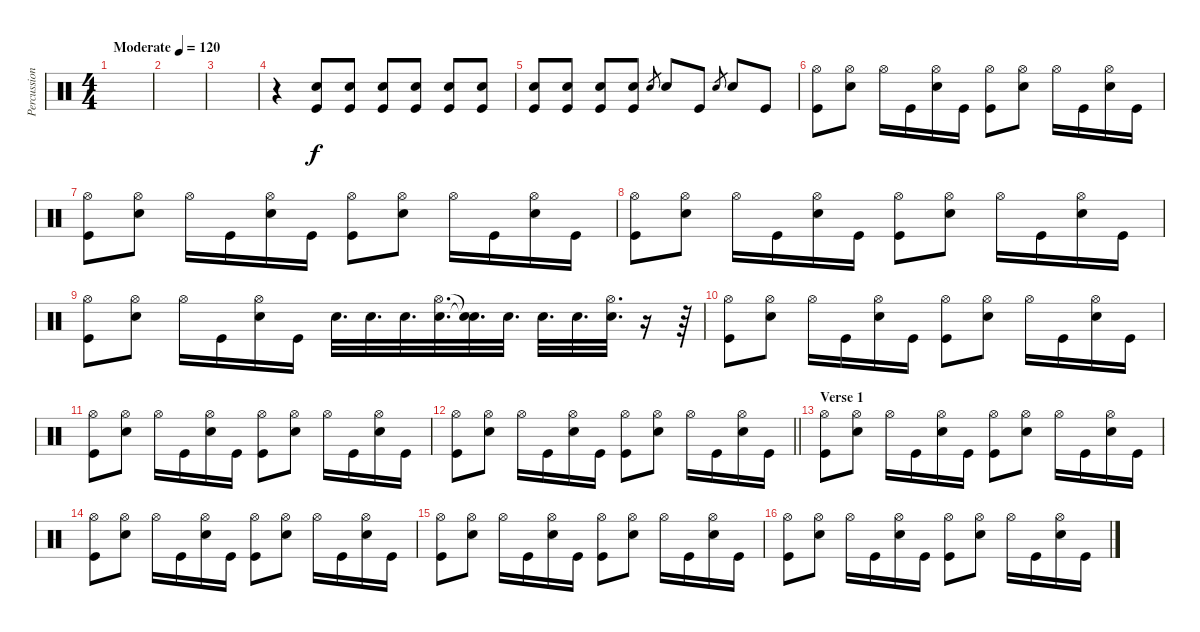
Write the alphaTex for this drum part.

\track ("Percussion" "Percussion") {instrument percussion}
\staff {score}
\articulation defaults
\ts (4 4)
\tempo (120 "Moderate")
\clef neutral
\ks c
|
|
|
r.4 ("Electric Snare (hit)" "Kick (hit)").8{volume 16} ("Electric Snare (hit)" "Kick (hit)").8 ("Electric Snare (hit)" "Kick (hit)").8 ("Electric Snare (hit)" "Kick (hit)").8 ("Electric Snare (hit)" "Kick (hit)").8 ("Electric Snare (hit)" "Kick (hit)").8 |
("Electric Snare (hit)" "Kick (hit)").8 ("Electric Snare (hit)" "Kick (hit)").8 ("Electric Snare (hit)" "Kick (hit)").8 ("Electric Snare (hit)" "Kick (hit)").8 "Electric Snare (hit)".8{gr} "Electric Snare (hit)".8 "Kick (hit)".8 "Electric Snare (hit)".8{gr} "Electric Snare (hit)".8 "Kick (hit)".8 |
("Hi-Hat (open)" "Kick (hit)").8 ("Hi-Hat (open)" "Electric Snare (hit)").8 "Hi-Hat (open)".16 "Kick (hit)".16 ("Hi-Hat (open)" "Electric Snare (hit)").16 "Kick (hit)".16 ("Hi-Hat (open)" "Kick (hit)").8 ("Hi-Hat (open)" "Electric Snare (hit)").8 "Hi-Hat (open)".16 "Kick (hit)".16 ("Hi-Hat (open)" "Electric Snare (hit)").16 "Kick (hit)".16 |
("Hi-Hat (open)" "Kick (hit)").8 ("Hi-Hat (open)" "Electric Snare (hit)").8 "Hi-Hat (open)".16 "Kick (hit)".16 ("Hi-Hat (open)" "Electric Snare (hit)").16 "Kick (hit)".16 ("Hi-Hat (open)" "Kick (hit)").8 ("Hi-Hat (open)" "Electric Snare (hit)").8 "Hi-Hat (open)".16 "Kick (hit)".16 ("Hi-Hat (open)" "Electric Snare (hit)").16 "Kick (hit)".16 |
("Hi-Hat (open)" "Kick (hit)").8 ("Hi-Hat (open)" "Electric Snare (hit)").8 "Hi-Hat (open)".16 "Kick (hit)".16 ("Hi-Hat (open)" "Electric Snare (hit)").16 "Kick (hit)".16 ("Hi-Hat (open)" "Kick (hit)").8 ("Hi-Hat (open)" "Electric Snare (hit)").8 "Hi-Hat (open)".16 "Kick (hit)".16 ("Hi-Hat (open)" "Electric Snare (hit)").16 "Kick (hit)".16 |
("Hi-Hat (open)" "Kick (hit)").8 ("Hi-Hat (open)" "Electric Snare (hit)").8 "Hi-Hat (open)".16 "Kick (hit)".16 ("Hi-Hat (open)" "Electric Snare (hit)").16 "Kick (hit)".16 "Electric Snare (hit)".32{d} "Electric Snare (hit)".32{d} "Electric Snare (hit)".32{d} ("Hi-Hat (open)" "Electric Snare (hit)").32{d} ("Snare (hit)"{t} "Snare (hit)"{t}).32{d} "Electric Snare (hit)".32{d} "Electric Snare (hit)".32{d} "Electric Snare (hit)".32{d} ("Hi-Hat (open)" "Electric Snare (hit)").32{d} r.16 r.64 |
("Hi-Hat (open)" "Kick (hit)").8 ("Hi-Hat (open)" "Electric Snare (hit)").8 "Hi-Hat (open)".16 "Kick (hit)".16 ("Hi-Hat (open)" "Electric Snare (hit)").16 "Kick (hit)".16 ("Hi-Hat (open)" "Kick (hit)").8 ("Hi-Hat (open)" "Electric Snare (hit)").8 "Hi-Hat (open)".16 "Kick (hit)".16 ("Hi-Hat (open)" "Electric Snare (hit)").16 "Kick (hit)".16 |
("Hi-Hat (open)" "Kick (hit)").8 ("Hi-Hat (open)" "Electric Snare (hit)").8 "Hi-Hat (open)".16 "Kick (hit)".16 ("Hi-Hat (open)" "Electric Snare (hit)").16 "Kick (hit)".16 ("Hi-Hat (open)" "Kick (hit)").8 ("Hi-Hat (open)" "Electric Snare (hit)").8 "Hi-Hat (open)".16 "Kick (hit)".16 ("Hi-Hat (open)" "Electric Snare (hit)").16 "Kick (hit)".16 |
\barLineRight lightlight
("Hi-Hat (open)" "Kick (hit)").8 ("Hi-Hat (open)" "Electric Snare (hit)").8 "Hi-Hat (open)".16 "Kick (hit)".16 ("Hi-Hat (open)" "Electric Snare (hit)").16 "Kick (hit)".16 ("Hi-Hat (open)" "Kick (hit)").8 ("Hi-Hat (open)" "Electric Snare (hit)").8 "Hi-Hat (open)".16 "Kick (hit)".16 ("Hi-Hat (open)" "Electric Snare (hit)").16 "Kick (hit)".16 |
\section ("" "Verse 1")
("Hi-Hat (open)" "Kick (hit)").8 ("Hi-Hat (open)" "Electric Snare (hit)").8 "Hi-Hat (open)".16 "Kick (hit)".16 ("Hi-Hat (open)" "Electric Snare (hit)").16 "Kick (hit)".16 ("Hi-Hat (open)" "Kick (hit)").8 ("Hi-Hat (open)" "Electric Snare (hit)").8 "Hi-Hat (open)".16 "Kick (hit)".16 ("Hi-Hat (open)" "Electric Snare (hit)").16 "Kick (hit)".16 |
("Hi-Hat (open)" "Kick (hit)").8 ("Hi-Hat (open)" "Electric Snare (hit)").8 "Hi-Hat (open)".16 "Kick (hit)".16 ("Hi-Hat (open)" "Electric Snare (hit)").16 "Kick (hit)".16 ("Hi-Hat (open)" "Kick (hit)").8 ("Hi-Hat (open)" "Electric Snare (hit)").8 "Hi-Hat (open)".16 "Kick (hit)".16 ("Hi-Hat (open)" "Electric Snare (hit)").16 "Kick (hit)".16 |
("Hi-Hat (open)" "Kick (hit)").8 ("Hi-Hat (open)" "Electric Snare (hit)").8 "Hi-Hat (open)".16 "Kick (hit)".16 ("Hi-Hat (open)" "Electric Snare (hit)").16 "Kick (hit)".16 ("Hi-Hat (open)" "Kick (hit)").8 ("Hi-Hat (open)" "Electric Snare (hit)").8 "Hi-Hat (open)".16 "Kick (hit)".16 ("Hi-Hat (open)" "Electric Snare (hit)").16 "Kick (hit)".16 |
("Hi-Hat (open)" "Kick (hit)").8 ("Hi-Hat (open)" "Electric Snare (hit)").8 "Hi-Hat (open)".16 "Kick (hit)".16 ("Hi-Hat (open)" "Electric Snare (hit)").16 "Kick (hit)".16 ("Hi-Hat (open)" "Kick (hit)").8 ("Hi-Hat (open)" "Electric Snare (hit)").8 "Hi-Hat (open)".16 "Kick (hit)".16 ("Hi-Hat (open)" "Electric Snare (hit)").16 "Kick (hit)".16
